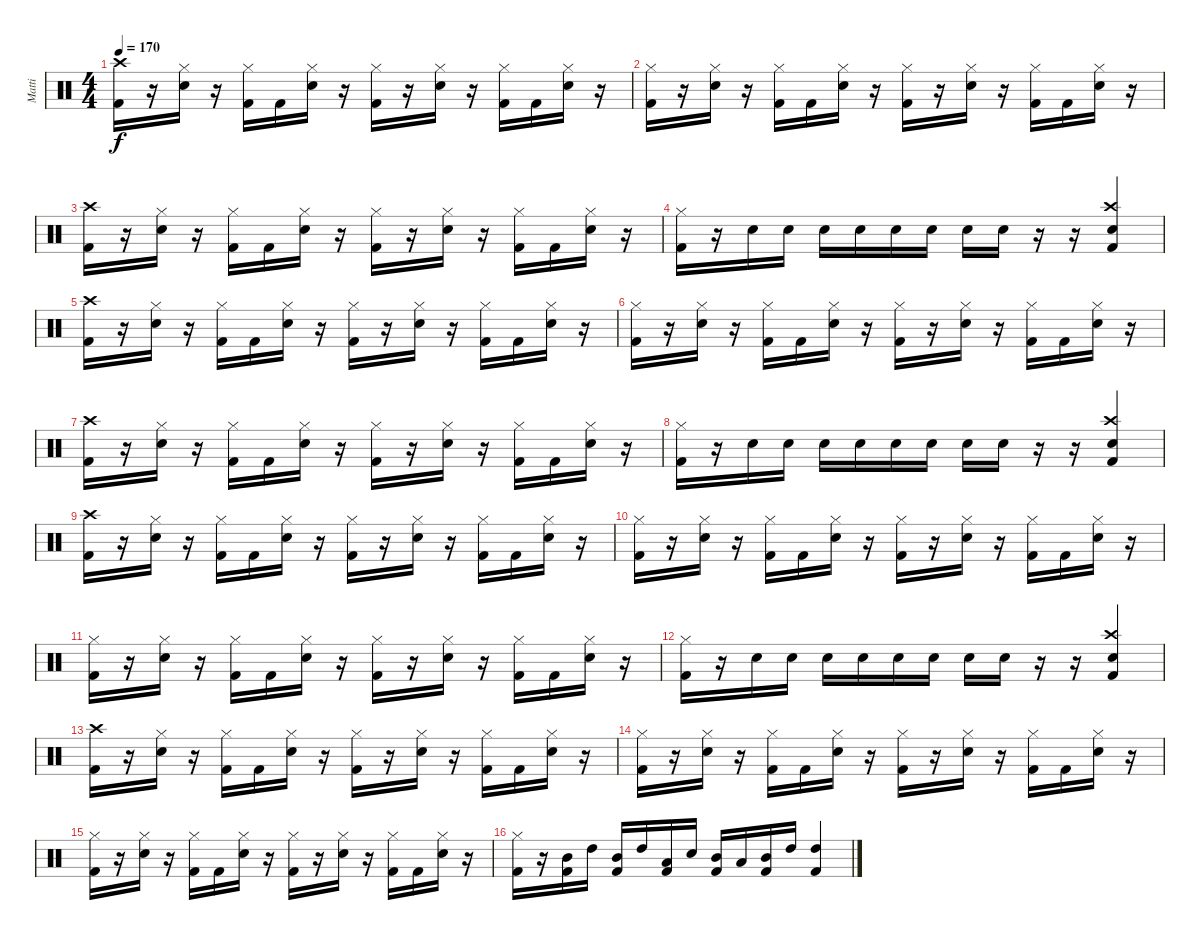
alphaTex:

\track ("Matti" "Matti") {instrument percussion}
\staff {score}
\articulation defaults
\ts (4 4)
\tempo 170
\clef neutral
\ks c
("Kick (hit) 2" "Crash high (hit)").16{dy f} r.16 ("Snare (hit) 2" "Hi-Hat (closed)").16 r.16 ("Kick (hit) 2" "Hi-Hat (closed)").16 "Kick (hit) 2".16 ("Snare (hit) 2" "Hi-Hat (closed)").16 r.16 ("Kick (hit) 2" "Hi-Hat (closed)").16 r.16 ("Snare (hit) 2" "Hi-Hat (closed)").16 r.16 ("Kick (hit) 2" "Hi-Hat (closed)").16 "Kick (hit) 2".16 ("Snare (hit) 2" "Hi-Hat (closed)").16 r.16 |
("Kick (hit) 2" "Hi-Hat (closed)").16 r.16 ("Snare (hit) 2" "Hi-Hat (closed)").16 r.16 ("Kick (hit) 2" "Hi-Hat (closed)").16 "Kick (hit) 2".16 ("Snare (hit) 2" "Hi-Hat (closed)").16 r.16 ("Kick (hit) 2" "Hi-Hat (closed)").16 r.16 ("Snare (hit) 2" "Hi-Hat (closed)").16 r.16 ("Kick (hit) 2" "Hi-Hat (closed)").16 "Kick (hit) 2".16 ("Snare (hit) 2" "Hi-Hat (closed)").16 r.16 |
("Kick (hit) 2" "Crash high (hit)").16 r.16 ("Snare (hit) 2" "Hi-Hat (closed)").16 r.16 ("Kick (hit) 2" "Hi-Hat (closed)").16 "Kick (hit) 2".16 ("Snare (hit) 2" "Hi-Hat (closed)").16 r.16 ("Kick (hit) 2" "Hi-Hat (closed)").16 r.16 ("Snare (hit) 2" "Hi-Hat (closed)").16 r.16 ("Kick (hit) 2" "Hi-Hat (closed)").16 "Kick (hit) 2".16 ("Snare (hit) 2" "Hi-Hat (closed)").16 r.16 |
("Kick (hit) 2" "Hi-Hat (closed)").16 r.16 "Snare (hit) 2".16 "Snare (hit) 2".16 "Snare (hit) 2".16 "Snare (hit) 2".16 "Snare (hit) 2".16 "Snare (hit) 2".16 "Snare (hit) 2".16 "Snare (hit) 2".16 r.16 r.16 ("Crash high (hit)" "Kick (hit) 2" "Snare (hit) 2").4 |
("Kick (hit) 2" "Crash high (hit)").16 r.16 ("Snare (hit) 2" "Hi-Hat (closed)").16 r.16 ("Kick (hit) 2" "Hi-Hat (closed)").16 "Kick (hit) 2".16 ("Snare (hit) 2" "Hi-Hat (closed)").16 r.16 ("Kick (hit) 2" "Hi-Hat (closed)").16 r.16 ("Snare (hit) 2" "Hi-Hat (closed)").16 r.16 ("Kick (hit) 2" "Hi-Hat (closed)").16 "Kick (hit) 2".16 ("Snare (hit) 2" "Hi-Hat (closed)").16 r.16 |
("Kick (hit) 2" "Hi-Hat (closed)").16 r.16 ("Snare (hit) 2" "Hi-Hat (closed)").16 r.16 ("Kick (hit) 2" "Hi-Hat (closed)").16 "Kick (hit) 2".16 ("Snare (hit) 2" "Hi-Hat (closed)").16 r.16 ("Kick (hit) 2" "Hi-Hat (closed)").16 r.16 ("Snare (hit) 2" "Hi-Hat (closed)").16 r.16 ("Kick (hit) 2" "Hi-Hat (closed)").16 "Kick (hit) 2".16 ("Snare (hit) 2" "Hi-Hat (closed)").16 r.16 |
("Kick (hit) 2" "Crash high (hit)").16 r.16 ("Snare (hit) 2" "Hi-Hat (closed)").16 r.16 ("Kick (hit) 2" "Hi-Hat (closed)").16 "Kick (hit) 2".16 ("Snare (hit) 2" "Hi-Hat (closed)").16 r.16 ("Kick (hit) 2" "Hi-Hat (closed)").16 r.16 ("Snare (hit) 2" "Hi-Hat (closed)").16 r.16 ("Kick (hit) 2" "Hi-Hat (closed)").16 "Kick (hit) 2".16 ("Snare (hit) 2" "Hi-Hat (closed)").16 r.16 |
("Kick (hit) 2" "Hi-Hat (closed)").16 r.16 "Snare (hit) 2".16 "Snare (hit) 2".16 "Snare (hit) 2".16 "Snare (hit) 2".16 "Snare (hit) 2".16 "Snare (hit) 2".16 "Snare (hit) 2".16 "Snare (hit) 2".16 r.16 r.16 ("Crash high (hit)" "Kick (hit) 2" "Snare (hit) 2").4 |
("Kick (hit) 2" "Crash high (hit)").16 r.16 ("Snare (hit) 2" "Hi-Hat (closed)").16 r.16 ("Kick (hit) 2" "Hi-Hat (closed)").16 "Kick (hit) 2".16 ("Snare (hit) 2" "Hi-Hat (closed)").16 r.16 ("Kick (hit) 2" "Hi-Hat (closed)").16 r.16 ("Snare (hit) 2" "Hi-Hat (closed)").16 r.16 ("Kick (hit) 2" "Hi-Hat (closed)").16 "Kick (hit) 2".16 ("Snare (hit) 2" "Hi-Hat (closed)").16 r.16 |
("Kick (hit) 2" "Hi-Hat (closed)").16 r.16 ("Snare (hit) 2" "Hi-Hat (closed)").16 r.16 ("Kick (hit) 2" "Hi-Hat (closed)").16 "Kick (hit) 2".16 ("Snare (hit) 2" "Hi-Hat (closed)").16 r.16 ("Kick (hit) 2" "Hi-Hat (closed)").16 r.16 ("Snare (hit) 2" "Hi-Hat (closed)").16 r.16 ("Kick (hit) 2" "Hi-Hat (closed)").16 "Kick (hit) 2".16 ("Snare (hit) 2" "Hi-Hat (closed)").16 r.16 |
("Kick (hit) 2" "Hi-Hat (closed)").16 r.16 ("Snare (hit) 2" "Hi-Hat (closed)").16 r.16 ("Kick (hit) 2" "Hi-Hat (closed)").16 "Kick (hit) 2".16 ("Snare (hit) 2" "Hi-Hat (closed)").16 r.16 ("Kick (hit) 2" "Hi-Hat (closed)").16 r.16 ("Snare (hit) 2" "Hi-Hat (closed)").16 r.16 ("Kick (hit) 2" "Hi-Hat (closed)").16 "Kick (hit) 2".16 ("Snare (hit) 2" "Hi-Hat (closed)").16 r.16 |
("Kick (hit) 2" "Hi-Hat (closed)").16 r.16 "Snare (hit) 2".16 "Snare (hit) 2".16 "Snare (hit) 2".16 "Snare (hit) 2".16 "Snare (hit) 2".16 "Snare (hit) 2".16 "Snare (hit) 2".16 "Snare (hit) 2".16 r.16 r.16 ("Crash high (hit)" "Kick (hit) 2" "Snare (hit) 2").4 |
("Kick (hit) 2" "Crash high (hit)").16 r.16 ("Snare (hit) 2" "Hi-Hat (closed)").16 r.16 ("Kick (hit) 2" "Hi-Hat (closed)").16 "Kick (hit) 2".16 ("Snare (hit) 2" "Hi-Hat (closed)").16 r.16 ("Kick (hit) 2" "Hi-Hat (closed)").16 r.16 ("Snare (hit) 2" "Hi-Hat (closed)").16 r.16 ("Kick (hit) 2" "Hi-Hat (closed)").16 "Kick (hit) 2".16 ("Snare (hit) 2" "Hi-Hat (closed)").16 r.16 |
("Kick (hit) 2" "Hi-Hat (closed)").16 r.16 ("Snare (hit) 2" "Hi-Hat (closed)").16 r.16 ("Kick (hit) 2" "Hi-Hat (closed)").16 "Kick (hit) 2".16 ("Snare (hit) 2" "Hi-Hat (closed)").16 r.16 ("Kick (hit) 2" "Hi-Hat (closed)").16 r.16 ("Snare (hit) 2" "Hi-Hat (closed)").16 r.16 ("Kick (hit) 2" "Hi-Hat (closed)").16 "Kick (hit) 2".16 ("Snare (hit) 2" "Hi-Hat (closed)").16 r.16 |
("Kick (hit) 2" "Hi-Hat (closed)").16 r.16 ("Snare (hit) 2" "Hi-Hat (closed)").16 r.16 ("Kick (hit) 2" "Hi-Hat (closed)").16 "Kick (hit) 2".16 ("Snare (hit) 2" "Hi-Hat (closed)").16 r.16 ("Kick (hit) 2" "Hi-Hat (closed)").16 r.16 ("Snare (hit) 2" "Hi-Hat (closed)").16 r.16 ("Kick (hit) 2" "Hi-Hat (closed)").16 "Kick (hit) 2".16 ("Snare (hit) 2" "Hi-Hat (closed)").16 r.16 |
("Kick (hit) 2" "Hi-Hat (closed)").16 r.16 ("Mid Tom (hit)" "Kick (hit) 2").16 "High Tom (hit)".16 ("Mid Tom (hit)" "Kick (hit) 2").16 "High Tom (hit)".16 ("Low Tom (hit)" "Kick (hit) 2").16 "Electric Snare (hit)".16 ("Mid Tom (hit)" "Kick (hit) 2").16 "Low Tom (hit)".16 ("Mid Tom (hit)" "Kick (hit) 2").16 "High Tom (hit)".16 ("High Tom (hit)" "Kick (hit) 2").4
